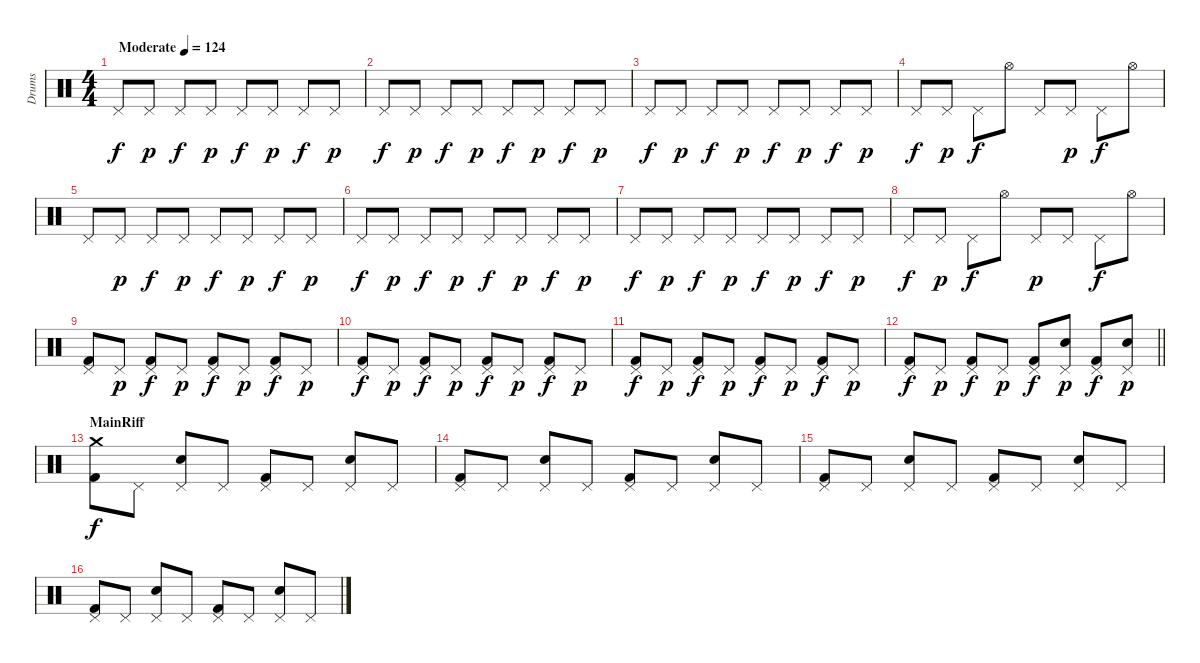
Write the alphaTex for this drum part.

\track ("Drums" "Drums") {instrument percussion}
\staff {score}
\articulation defaults
\ts (4 4)
\tempo (124 "Moderate")
\clef neutral
\ks c "Pedal Hi-Hat (hit)".8{dy f} "Pedal Hi-Hat (hit)".8{dy p} "Pedal Hi-Hat (hit)".8{dy f} "Pedal Hi-Hat (hit)".8{dy p} "Pedal Hi-Hat (hit)".8{dy f} "Pedal Hi-Hat (hit)".8{dy p} "Pedal Hi-Hat (hit)".8{dy f} "Pedal Hi-Hat (hit)".8{dy p}
|
"Pedal Hi-Hat (hit)".8{dy f} "Pedal Hi-Hat (hit)".8{dy p} "Pedal Hi-Hat (hit)".8{dy f} "Pedal Hi-Hat (hit)".8{dy p} "Pedal Hi-Hat (hit)".8{dy f} "Pedal Hi-Hat (hit)".8{dy p} "Pedal Hi-Hat (hit)".8{dy f} "Pedal Hi-Hat (hit)".8{dy p} |
"Pedal Hi-Hat (hit)".8{dy f} "Pedal Hi-Hat (hit)".8{dy p} "Pedal Hi-Hat (hit)".8{dy f} "Pedal Hi-Hat (hit)".8{dy p} "Pedal Hi-Hat (hit)".8{dy f} "Pedal Hi-Hat (hit)".8{dy p} "Pedal Hi-Hat (hit)".8{dy f} "Pedal Hi-Hat (hit)".8{dy p} |
"Pedal Hi-Hat (hit)".8{dy f} "Pedal Hi-Hat (hit)".8{dy p} "Pedal Hi-Hat (hit)".8{dy f} "Hi-Hat (open)".8 "Pedal Hi-Hat (hit)".8 "Pedal Hi-Hat (hit)".8{dy p} "Pedal Hi-Hat (hit)".8{dy f} "Hi-Hat (open)".8 |
"Pedal Hi-Hat (hit)".8 "Pedal Hi-Hat (hit)".8{dy p} "Pedal Hi-Hat (hit)".8{dy f} "Pedal Hi-Hat (hit)".8{dy p} "Pedal Hi-Hat (hit)".8{dy f} "Pedal Hi-Hat (hit)".8{dy p} "Pedal Hi-Hat (hit)".8{dy f} "Pedal Hi-Hat (hit)".8{dy p} |
"Pedal Hi-Hat (hit)".8{dy f} "Pedal Hi-Hat (hit)".8{dy p} "Pedal Hi-Hat (hit)".8{dy f} "Pedal Hi-Hat (hit)".8{dy p} "Pedal Hi-Hat (hit)".8{dy f} "Pedal Hi-Hat (hit)".8{dy p} "Pedal Hi-Hat (hit)".8{dy f} "Pedal Hi-Hat (hit)".8{dy p} |
"Pedal Hi-Hat (hit)".8{dy f} "Pedal Hi-Hat (hit)".8{dy p} "Pedal Hi-Hat (hit)".8{dy f} "Pedal Hi-Hat (hit)".8{dy p} "Pedal Hi-Hat (hit)".8{dy f} "Pedal Hi-Hat (hit)".8{dy p} "Pedal Hi-Hat (hit)".8{dy f} "Pedal Hi-Hat (hit)".8{dy p} |
"Pedal Hi-Hat (hit)".8{dy f} "Pedal Hi-Hat (hit)".8{dy p} "Pedal Hi-Hat (hit)".8{dy f} "Hi-Hat (open)".8 "Pedal Hi-Hat (hit)".8{dy p} "Pedal Hi-Hat (hit)".8 "Pedal Hi-Hat (hit)".8{dy f} "Hi-Hat (open)".8 |
("Kick (hit) 2" "Pedal Hi-Hat (hit)").8 "Pedal Hi-Hat (hit)".8{dy p} ("Kick (hit) 2" "Pedal Hi-Hat (hit)").8{dy f} "Pedal Hi-Hat (hit)".8{dy p} ("Kick (hit) 2" "Pedal Hi-Hat (hit)").8{dy f} "Pedal Hi-Hat (hit)".8{dy p} ("Kick (hit) 2" "Pedal Hi-Hat (hit)").8{dy f} "Pedal Hi-Hat (hit)".8{dy p} |
("Kick (hit) 2" "Pedal Hi-Hat (hit)").8{dy f} "Pedal Hi-Hat (hit)".8{dy p} ("Kick (hit) 2" "Pedal Hi-Hat (hit)").8{dy f} "Pedal Hi-Hat (hit)".8{dy p} ("Kick (hit) 2" "Pedal Hi-Hat (hit)").8{dy f} "Pedal Hi-Hat (hit)".8{dy p} ("Kick (hit) 2" "Pedal Hi-Hat (hit)").8{dy f} "Pedal Hi-Hat (hit)".8{dy p} |
("Kick (hit) 2" "Pedal Hi-Hat (hit)").8{dy f} "Pedal Hi-Hat (hit)".8{dy p} ("Kick (hit) 2" "Pedal Hi-Hat (hit)").8{dy f} "Pedal Hi-Hat (hit)".8{dy p} ("Kick (hit) 2" "Pedal Hi-Hat (hit)").8{dy f} "Pedal Hi-Hat (hit)".8{dy p} ("Kick (hit) 2" "Pedal Hi-Hat (hit)").8{dy f} "Pedal Hi-Hat (hit)".8{dy p} |
\barLineRight lightlight
("Kick (hit) 2" "Pedal Hi-Hat (hit)").8{dy f} "Pedal Hi-Hat (hit)".8{dy p} ("Kick (hit) 2" "Pedal Hi-Hat (hit)").8{dy f} "Pedal Hi-Hat (hit)".8{dy p} ("Kick (hit) 2" "Pedal Hi-Hat (hit)").8{dy f} ("Electric Snare (hit)" "Pedal Hi-Hat (hit)").8{dy p} ("Kick (hit) 2" "Pedal Hi-Hat (hit)").8{dy f} ("Electric Snare (hit)" "Pedal Hi-Hat (hit)").8{dy p} |
\section ("" "MainRiff")
("Kick (hit) 2" "Crash medium (hit)").8{dy f} "Pedal Hi-Hat (hit)".8 ("Electric Snare (hit)" "Pedal Hi-Hat (hit)").8 "Pedal Hi-Hat (hit)".8 ("Kick (hit) 2" "Pedal Hi-Hat (hit)").8 "Pedal Hi-Hat (hit)".8 ("Electric Snare (hit)" "Pedal Hi-Hat (hit)").8 "Pedal Hi-Hat (hit)".8 |
("Kick (hit) 2" "Pedal Hi-Hat (hit)").8 "Pedal Hi-Hat (hit)".8 ("Electric Snare (hit)" "Pedal Hi-Hat (hit)").8 "Pedal Hi-Hat (hit)".8 ("Kick (hit) 2" "Pedal Hi-Hat (hit)").8 "Pedal Hi-Hat (hit)".8 ("Electric Snare (hit)" "Pedal Hi-Hat (hit)").8 "Pedal Hi-Hat (hit)".8 |
("Kick (hit) 2" "Pedal Hi-Hat (hit)").8 "Pedal Hi-Hat (hit)".8 ("Electric Snare (hit)" "Pedal Hi-Hat (hit)").8 "Pedal Hi-Hat (hit)".8 ("Kick (hit) 2" "Pedal Hi-Hat (hit)").8 "Pedal Hi-Hat (hit)".8 ("Electric Snare (hit)" "Pedal Hi-Hat (hit)").8 "Pedal Hi-Hat (hit)".8 |
("Kick (hit) 2" "Pedal Hi-Hat (hit)").8 "Pedal Hi-Hat (hit)".8 ("Electric Snare (hit)" "Pedal Hi-Hat (hit)").8 "Pedal Hi-Hat (hit)".8 ("Kick (hit) 2" "Pedal Hi-Hat (hit)").8 "Pedal Hi-Hat (hit)".8 ("Electric Snare (hit)" "Pedal Hi-Hat (hit)").8 "Pedal Hi-Hat (hit)".8
